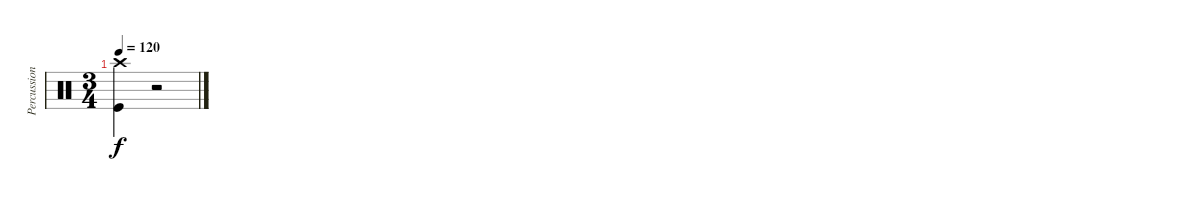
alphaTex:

\track ("Percussion" "Percussion") {instrument percussion}
\staff {score}
\articulation defaults
\ts (3 4)
\tempo 120
\clef neutral
\ks c
("Crash high (hit)" "Kick (hit)").4{dy f} r.2
